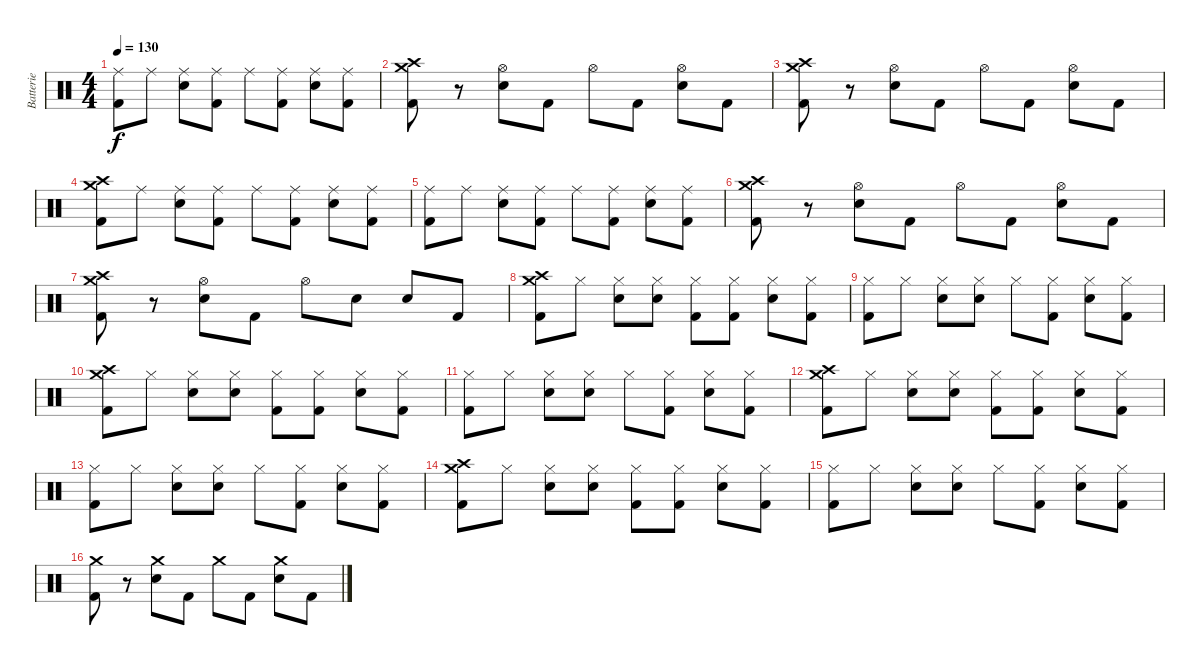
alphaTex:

\track ("Batterie" "Batterie") {instrument percussion}
\staff {score}
\articulation defaults
\ts (4 4)
\tempo 130
\clef neutral
\ks c
("Ride (middle)" "Kick (hit) 2").8{dy f} "Ride (middle)".8 ("Ride (middle)" "Snare (hit) 2").8 ("Ride (middle)" "Kick (hit) 2").8 "Ride (middle)".8 ("Ride (middle)" "Kick (hit) 2").8 ("Ride (middle)" "Snare (hit) 2").8 ("Ride (middle)" "Kick (hit) 2").8 |
("Crash high (hit)" "Crash medium (hit)" "Kick (hit) 2").8 r.8 ("Hi-Hat (open)" "Snare (hit) 2").8 "Kick (hit) 2".8 "Hi-Hat (open)".8 "Kick (hit) 2".8 ("Hi-Hat (open)" "Snare (hit) 2").8 "Kick (hit) 2".8 |
("Crash high (hit)" "Crash medium (hit)" "Kick (hit) 2").8 r.8 ("Hi-Hat (open)" "Snare (hit) 2").8 "Kick (hit) 2".8 "Hi-Hat (open)".8 "Kick (hit) 2".8 ("Hi-Hat (open)" "Snare (hit) 2").8 "Kick (hit) 2".8 |
("Crash high (hit)" "Crash medium (hit)" "Kick (hit) 2").8 "Ride (middle)".8 ("Ride (middle)" "Snare (hit) 2").8 ("Ride (middle)" "Kick (hit) 2").8 "Ride (middle)".8 ("Ride (middle)" "Kick (hit) 2").8 ("Ride (middle)" "Snare (hit) 2").8 ("Ride (middle)" "Kick (hit) 2").8 |
("Ride (middle)" "Kick (hit) 2").8 "Ride (middle)".8 ("Ride (middle)" "Snare (hit) 2").8 ("Ride (middle)" "Kick (hit) 2").8 "Ride (middle)".8 ("Ride (middle)" "Kick (hit) 2").8 ("Ride (middle)" "Snare (hit) 2").8 ("Ride (middle)" "Kick (hit) 2").8 |
("Crash high (hit)" "Crash medium (hit)" "Kick (hit) 2").8 r.8 ("Hi-Hat (open)" "Snare (hit) 2").8 "Kick (hit) 2".8 "Hi-Hat (open)".8 "Kick (hit) 2".8 ("Hi-Hat (open)" "Snare (hit) 2").8 "Kick (hit) 2".8 |
("Crash high (hit)" "Crash medium (hit)" "Kick (hit) 2").8 r.8 ("Hi-Hat (open)" "Snare (hit) 2").8 "Kick (hit) 2".8 "Hi-Hat (open)".8 "Snare (hit) 2".8 "Snare (hit) 2".8 "Kick (hit) 2".8 |
("Crash high (hit)" "Crash medium (hit)" "Kick (hit) 2").8 "Hi-Hat (closed)".8 ("Hi-Hat (closed)" "Snare (hit) 2").8 ("Hi-Hat (closed)" "Snare (hit) 2").8 ("Hi-Hat (closed)" "Kick (hit) 2").8 ("Hi-Hat (closed)" "Kick (hit) 2").8 ("Hi-Hat (closed)" "Snare (hit) 2").8 ("Hi-Hat (closed)" "Kick (hit) 2").8 |
("Hi-Hat (closed)" "Kick (hit) 2").8 "Hi-Hat (closed)".8 ("Hi-Hat (closed)" "Snare (hit) 2").8 ("Hi-Hat (closed)" "Snare (hit) 2").8 "Hi-Hat (closed)".8 ("Hi-Hat (closed)" "Kick (hit) 2").8 ("Hi-Hat (closed)" "Snare (hit) 2").8 ("Hi-Hat (closed)" "Kick (hit) 2").8 |
("Crash high (hit)" "Crash medium (hit)" "Kick (hit) 2").8 "Hi-Hat (closed)".8 ("Hi-Hat (closed)" "Snare (hit) 2").8 ("Hi-Hat (closed)" "Snare (hit) 2").8 ("Hi-Hat (closed)" "Kick (hit) 2").8 ("Hi-Hat (closed)" "Kick (hit) 2").8 ("Hi-Hat (closed)" "Snare (hit) 2").8 ("Hi-Hat (closed)" "Kick (hit) 2").8 |
("Hi-Hat (closed)" "Kick (hit) 2").8 "Hi-Hat (closed)".8 ("Hi-Hat (closed)" "Snare (hit) 2").8 ("Hi-Hat (closed)" "Snare (hit) 2").8 "Hi-Hat (closed)".8 ("Hi-Hat (closed)" "Kick (hit) 2").8 ("Hi-Hat (closed)" "Snare (hit) 2").8 ("Hi-Hat (closed)" "Kick (hit) 2").8 |
("Crash high (hit)" "Crash medium (hit)" "Kick (hit) 2").8 "Hi-Hat (closed)".8 ("Hi-Hat (closed)" "Snare (hit) 2").8 ("Hi-Hat (closed)" "Snare (hit) 2").8 ("Hi-Hat (closed)" "Kick (hit) 2").8 ("Hi-Hat (closed)" "Kick (hit) 2").8 ("Hi-Hat (closed)" "Snare (hit) 2").8 ("Hi-Hat (closed)" "Kick (hit) 2").8 |
("Hi-Hat (closed)" "Kick (hit) 2").8 "Hi-Hat (closed)".8 ("Hi-Hat (closed)" "Snare (hit) 2").8 ("Hi-Hat (closed)" "Snare (hit) 2").8 "Hi-Hat (closed)".8 ("Hi-Hat (closed)" "Kick (hit) 2").8 ("Hi-Hat (closed)" "Snare (hit) 2").8 ("Hi-Hat (closed)" "Kick (hit) 2").8 |
("Crash high (hit)" "Crash medium (hit)" "Kick (hit) 2").8 "Hi-Hat (closed)".8 ("Hi-Hat (closed)" "Snare (hit) 2").8 ("Hi-Hat (closed)" "Snare (hit) 2").8 ("Hi-Hat (closed)" "Kick (hit) 2").8 ("Hi-Hat (closed)" "Kick (hit) 2").8 ("Hi-Hat (closed)" "Snare (hit) 2").8 ("Hi-Hat (closed)" "Kick (hit) 2").8 |
("Hi-Hat (closed)" "Kick (hit) 2").8 "Hi-Hat (closed)".8 ("Hi-Hat (closed)" "Snare (hit) 2").8 ("Hi-Hat (closed)" "Snare (hit) 2").8 "Hi-Hat (closed)".8 ("Hi-Hat (closed)" "Kick (hit) 2").8 ("Hi-Hat (closed)" "Snare (hit) 2").8 ("Hi-Hat (closed)" "Kick (hit) 2").8 |
("Crash medium (hit)" "Kick (hit) 2").8 r.8 ("Crash medium (hit)" "Snare (hit) 2").8 "Kick (hit) 2".8 "Crash medium (hit)".8 "Kick (hit) 2".8 ("Crash medium (hit)" "Snare (hit) 2").8 "Kick (hit) 2".8
